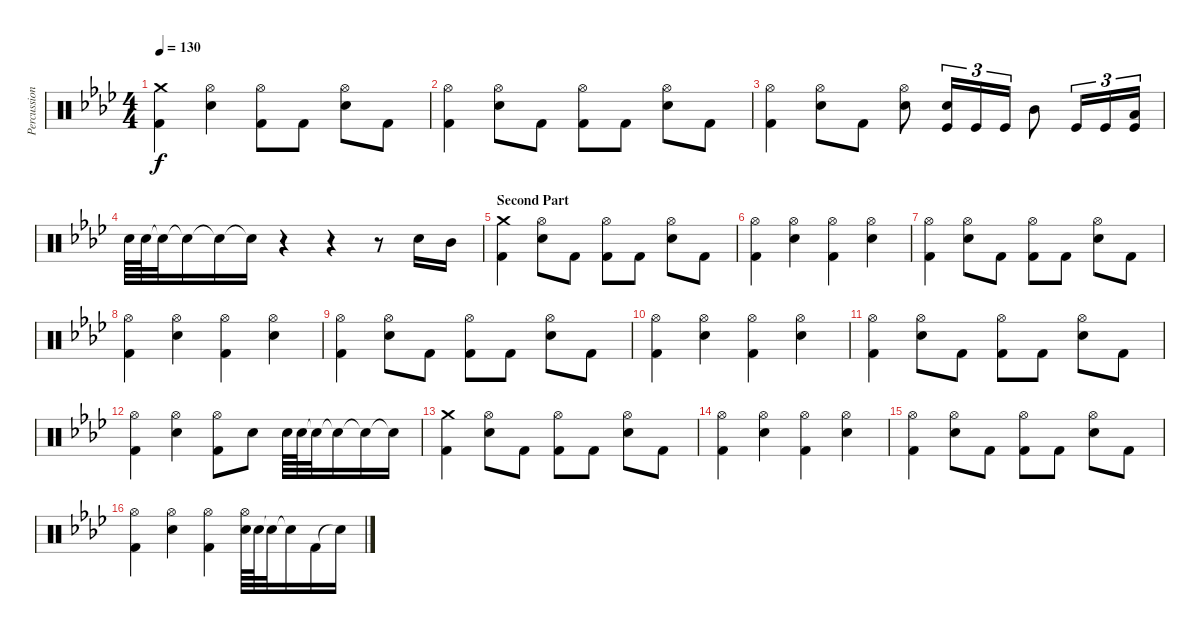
\track ("Percussions" "Percussion") {instrument percussion}
\staff {score}
\articulation defaults
\ts (4 4)
\tempo 130
\clef neutral
\ks ab
("Crash medium (hit)" "Kick (hit) 2").4{dy f} ("Hi-Hat (open)" "Electric Snare (hit)").4 ("Hi-Hat (open)" "Kick (hit) 2").8 "Kick (hit) 2".8 ("Hi-Hat (open)" "Electric Snare (hit)").8 "Kick (hit) 2".8 |
("Hi-Hat (open)" "Kick (hit) 2").4 ("Hi-Hat (open)" "Electric Snare (hit)").8 "Kick (hit) 2".8 ("Hi-Hat (open)" "Kick (hit) 2").8 "Kick (hit) 2".8 ("Hi-Hat (open)" "Electric Snare (hit)").8 "Kick (hit) 2".8 |
("Hi-Hat (open)" "Kick (hit) 2").4 ("Hi-Hat (open)" "Electric Snare (hit)").8 "Kick (hit) 2".8 ("Hi-Hat (open)" "Electric Snare (hit)").8 ("Electric Snare (hit)" "Kick (hit)").16{tu (3 2)} "Kick (hit)".16{tu (3 2)} "Kick (hit)".16{tu (3 2)} "Mid Tom (hit)".8 "Kick (hit)".16{tu (3 2)} "Kick (hit)".16{tu (3 2)} ("Low Tom (hit)" "Kick (hit)").16{tu (3 2)} |
"Electric Snare (hit)".64 "Electric Snare (hit)".64 "Snare (hit)"{t}.32 "Snare (hit)"{t}.16 "Snare (hit)"{t}.16 "Snare (hit)"{t}.16 r.4 r.4 r.8 "Electric Snare (hit)".16 "Mid Tom (hit)".16 |
\section ("" "Second Part ")
("Crash medium (hit)" "Kick (hit) 2").4 ("Hi-Hat (open)" "Electric Snare (hit)").8 "Kick (hit) 2".8 ("Hi-Hat (open)" "Kick (hit) 2").8 "Kick (hit) 2".8 ("Hi-Hat (open)" "Electric Snare (hit)").8 "Kick (hit) 2".8 |
("Hi-Hat (open)" "Kick (hit) 2").4 ("Hi-Hat (open)" "Electric Snare (hit)").4 ("Hi-Hat (open)" "Kick (hit) 2").4 ("Hi-Hat (open)" "Electric Snare (hit)").4 |
("Hi-Hat (open)" "Kick (hit) 2").4 ("Hi-Hat (open)" "Electric Snare (hit)").8 "Kick (hit) 2".8 ("Hi-Hat (open)" "Kick (hit) 2").8 "Kick (hit) 2".8 ("Hi-Hat (open)" "Electric Snare (hit)").8 "Kick (hit) 2".8 |
("Hi-Hat (open)" "Kick (hit) 2").4 ("Hi-Hat (open)" "Electric Snare (hit)").4 ("Hi-Hat (open)" "Kick (hit) 2").4 ("Hi-Hat (open)" "Electric Snare (hit)").4 |
("Hi-Hat (open)" "Kick (hit) 2").4 ("Hi-Hat (open)" "Electric Snare (hit)").8 "Kick (hit) 2".8 ("Hi-Hat (open)" "Kick (hit) 2").8 "Kick (hit) 2".8 ("Hi-Hat (open)" "Electric Snare (hit)").8 "Kick (hit) 2".8 |
("Hi-Hat (open)" "Kick (hit) 2").4 ("Hi-Hat (open)" "Electric Snare (hit)").4 ("Hi-Hat (open)" "Kick (hit) 2").4 ("Hi-Hat (open)" "Electric Snare (hit)").4 |
("Hi-Hat (open)" "Kick (hit) 2").4 ("Hi-Hat (open)" "Electric Snare (hit)").8 "Kick (hit) 2".8 ("Hi-Hat (open)" "Kick (hit) 2").8 "Kick (hit) 2".8 ("Hi-Hat (open)" "Electric Snare (hit)").8 "Kick (hit) 2".8 |
("Hi-Hat (open)" "Kick (hit) 2").4 ("Hi-Hat (open)" "Electric Snare (hit)").4 ("Hi-Hat (open)" "Kick (hit) 2").8 "Electric Snare (hit)".8 "Electric Snare (hit)".64 "Electric Snare (hit)".64 "Snare (hit)"{t}.32 "Snare (hit)"{t}.16 "Snare (hit)"{t}.16 "Snare (hit)"{t}.16 |
("Crash medium (hit)" "Kick (hit) 2").4 ("Hi-Hat (open)" "Electric Snare (hit)").8 "Kick (hit) 2".8 ("Hi-Hat (open)" "Kick (hit) 2").8 "Kick (hit) 2".8 ("Hi-Hat (open)" "Electric Snare (hit)").8 "Kick (hit) 2".8 |
("Hi-Hat (open)" "Kick (hit) 2").4 ("Hi-Hat (open)" "Electric Snare (hit)").4 ("Hi-Hat (open)" "Kick (hit) 2").4 ("Hi-Hat (open)" "Electric Snare (hit)").4 |
("Hi-Hat (open)" "Kick (hit) 2").4 ("Hi-Hat (open)" "Electric Snare (hit)").8 "Kick (hit) 2".8 ("Hi-Hat (open)" "Kick (hit) 2").8 "Kick (hit) 2".8 ("Hi-Hat (open)" "Electric Snare (hit)").8 "Kick (hit) 2".8 |
("Hi-Hat (open)" "Kick (hit) 2").4 ("Hi-Hat (open)" "Electric Snare (hit)").4 ("Hi-Hat (open)" "Kick (hit) 2").4 ("Hi-Hat (open)" "Electric Snare (hit)").64 "Electric Snare (hit)".64 "Snare (hit)"{t}.32 "Snare (hit)"{t}.16 "Kick (hit) 2".16 "Snare (hit)"{t}.16
